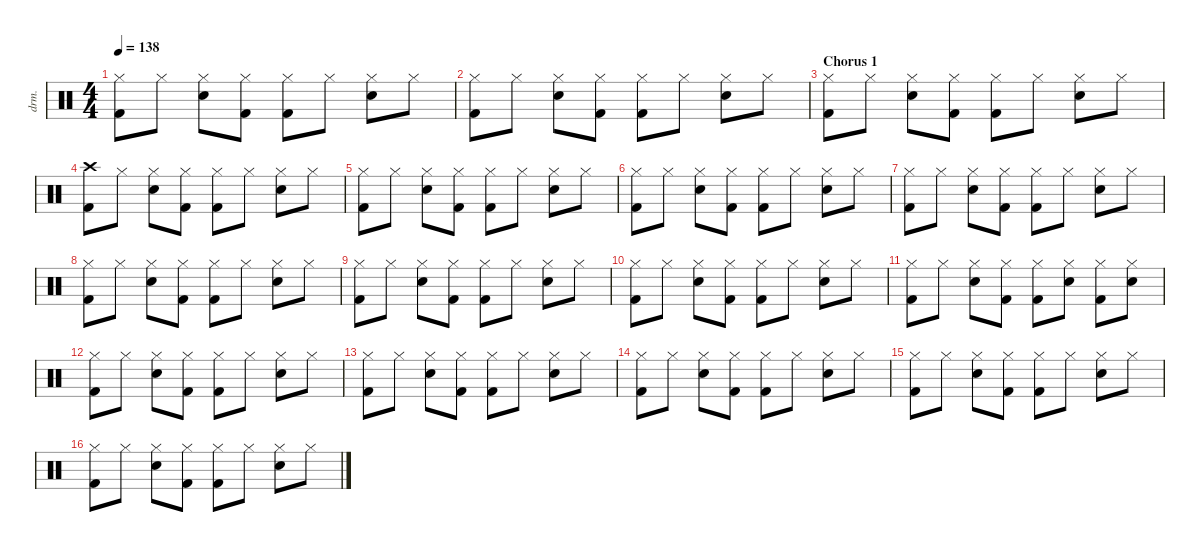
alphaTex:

\defaultSystemsLayout 4
\hideDynamics
\bracketExtendMode nobrackets
\otherSystemsTrackNameOrientation horizontal
\track ("Drums (Don Henley)" "drm.") {instrument percussion}
\staff {score}
\articulation defaults
\ts (4 4)
\tempo 138
\clef neutral
\ks c
("Hi-Hat (closed)" "Kick (hit) 2").8{dy f} "Hi-Hat (closed)".8 ("Hi-Hat (closed)" "Snare (hit) 2").8 ("Hi-Hat (closed)" "Kick (hit) 2").8 ("Hi-Hat (closed)" "Kick (hit) 2").8 "Hi-Hat (closed)".8 ("Hi-Hat (closed)" "Snare (hit) 2").8 "Hi-Hat (closed)".8 |
("Hi-Hat (closed)" "Kick (hit) 2").8 "Hi-Hat (closed)".8 ("Hi-Hat (closed)" "Snare (hit) 2").8 ("Hi-Hat (closed)" "Kick (hit) 2").8 ("Hi-Hat (closed)" "Kick (hit) 2").8 "Hi-Hat (closed)".8 ("Hi-Hat (closed)" "Snare (hit) 2").8 "Hi-Hat (closed)".8 |
\section ("" "Chorus 1")
("Hi-Hat (closed)" "Kick (hit) 2").8 "Hi-Hat (closed)".8 ("Hi-Hat (closed)" "Snare (hit) 2").8 ("Hi-Hat (closed)" "Kick (hit) 2").8 ("Hi-Hat (closed)" "Kick (hit) 2").8 "Hi-Hat (closed)".8 ("Hi-Hat (closed)" "Snare (hit) 2").8 "Hi-Hat (closed)".8 |
("Crash high (hit)" "Kick (hit) 2").8 "Hi-Hat (closed)".8 ("Hi-Hat (closed)" "Snare (hit) 2").8 ("Hi-Hat (closed)" "Kick (hit) 2").8 ("Hi-Hat (closed)" "Kick (hit) 2").8 "Hi-Hat (closed)".8 ("Hi-Hat (closed)" "Snare (hit) 2").8 "Hi-Hat (closed)".8 |
("Hi-Hat (closed)" "Kick (hit) 2").8 "Hi-Hat (closed)".8 ("Hi-Hat (closed)" "Snare (hit) 2").8 ("Hi-Hat (closed)" "Kick (hit) 2").8 ("Hi-Hat (closed)" "Kick (hit) 2").8 "Hi-Hat (closed)".8 ("Hi-Hat (closed)" "Snare (hit) 2").8 "Hi-Hat (closed)".8 |
("Hi-Hat (closed)" "Kick (hit) 2").8 "Hi-Hat (closed)".8 ("Hi-Hat (closed)" "Snare (hit) 2").8 ("Hi-Hat (closed)" "Kick (hit) 2").8 ("Hi-Hat (closed)" "Kick (hit) 2").8 "Hi-Hat (closed)".8 ("Hi-Hat (closed)" "Snare (hit) 2").8 "Hi-Hat (closed)".8 |
("Hi-Hat (closed)" "Kick (hit) 2").8 "Hi-Hat (closed)".8 ("Hi-Hat (closed)" "Snare (hit) 2").8 ("Hi-Hat (closed)" "Kick (hit) 2").8 ("Hi-Hat (closed)" "Kick (hit) 2").8 "Hi-Hat (closed)".8 ("Hi-Hat (closed)" "Snare (hit) 2").8 "Hi-Hat (closed)".8 |
("Hi-Hat (closed)" "Kick (hit) 2").8 "Hi-Hat (closed)".8 ("Hi-Hat (closed)" "Snare (hit) 2").8 ("Hi-Hat (closed)" "Kick (hit) 2").8 ("Hi-Hat (closed)" "Kick (hit) 2").8 "Hi-Hat (closed)".8 ("Hi-Hat (closed)" "Snare (hit) 2").8 "Hi-Hat (closed)".8 |
("Hi-Hat (closed)" "Kick (hit) 2").8 "Hi-Hat (closed)".8 ("Hi-Hat (closed)" "Snare (hit) 2").8 ("Hi-Hat (closed)" "Kick (hit) 2").8 ("Hi-Hat (closed)" "Kick (hit) 2").8 "Hi-Hat (closed)".8 ("Hi-Hat (closed)" "Snare (hit) 2").8 "Hi-Hat (closed)".8 |
("Hi-Hat (closed)" "Kick (hit) 2").8 "Hi-Hat (closed)".8 ("Hi-Hat (closed)" "Snare (hit) 2").8 ("Hi-Hat (closed)" "Kick (hit) 2").8 ("Hi-Hat (closed)" "Kick (hit) 2").8 "Hi-Hat (closed)".8 ("Hi-Hat (closed)" "Snare (hit) 2").8 "Hi-Hat (closed)".8 |
("Hi-Hat (closed)" "Kick (hit) 2").8 "Hi-Hat (closed)".8 ("Hi-Hat (closed)" "Snare (hit) 2").8 ("Hi-Hat (closed)" "Kick (hit) 2").8 ("Hi-Hat (closed)" "Kick (hit) 2").8 ("Hi-Hat (closed)" "Snare (hit) 2").8 ("Hi-Hat (closed)" "Kick (hit) 2").8 ("Hi-Hat (closed)" "Snare (hit) 2").8 |
("Hi-Hat (closed)" "Kick (hit) 2").8 "Hi-Hat (closed)".8 ("Hi-Hat (closed)" "Snare (hit) 2").8 ("Hi-Hat (closed)" "Kick (hit) 2").8 ("Hi-Hat (closed)" "Kick (hit) 2").8 "Hi-Hat (closed)".8 ("Hi-Hat (closed)" "Snare (hit) 2").8 "Hi-Hat (closed)".8 |
("Hi-Hat (closed)" "Kick (hit) 2").8 "Hi-Hat (closed)".8 ("Hi-Hat (closed)" "Snare (hit) 2").8 ("Hi-Hat (closed)" "Kick (hit) 2").8 ("Hi-Hat (closed)" "Kick (hit) 2").8 "Hi-Hat (closed)".8 ("Hi-Hat (closed)" "Snare (hit) 2").8 "Hi-Hat (closed)".8 |
("Hi-Hat (closed)" "Kick (hit) 2").8 "Hi-Hat (closed)".8 ("Hi-Hat (closed)" "Snare (hit) 2").8 ("Hi-Hat (closed)" "Kick (hit) 2").8 ("Hi-Hat (closed)" "Kick (hit) 2").8 "Hi-Hat (closed)".8 ("Hi-Hat (closed)" "Snare (hit) 2").8 "Hi-Hat (closed)".8 |
("Hi-Hat (closed)" "Kick (hit) 2").8 "Hi-Hat (closed)".8 ("Hi-Hat (closed)" "Snare (hit) 2").8 ("Hi-Hat (closed)" "Kick (hit) 2").8 ("Hi-Hat (closed)" "Kick (hit) 2").8 "Hi-Hat (closed)".8 ("Hi-Hat (closed)" "Snare (hit) 2").8 "Hi-Hat (closed)".8 |
("Hi-Hat (closed)" "Kick (hit) 2").8 "Hi-Hat (closed)".8 ("Hi-Hat (closed)" "Snare (hit) 2").8 ("Hi-Hat (closed)" "Kick (hit) 2").8 ("Hi-Hat (closed)" "Kick (hit) 2").8 "Hi-Hat (closed)".8 ("Hi-Hat (closed)" "Snare (hit) 2").8 "Hi-Hat (closed)".8
